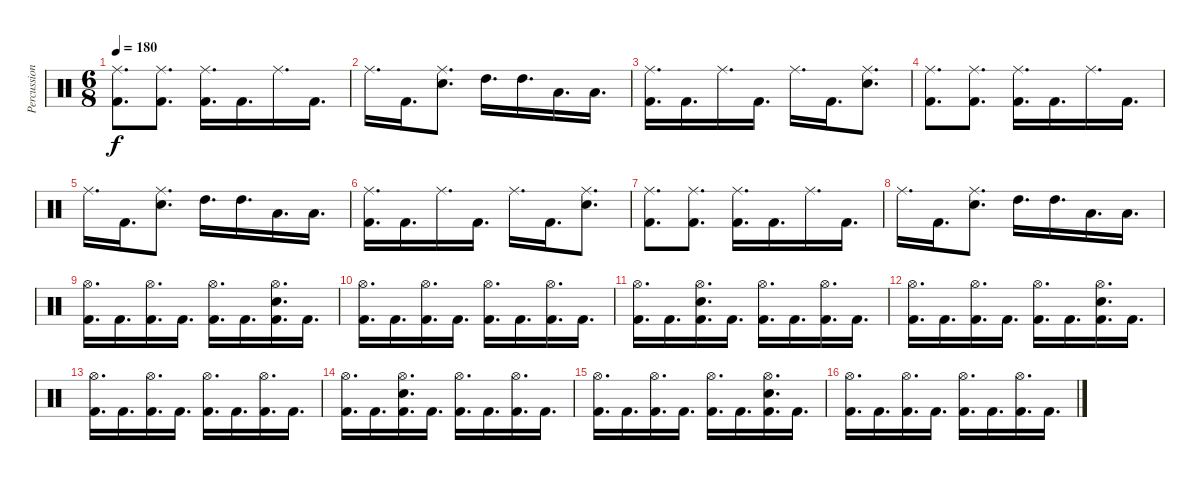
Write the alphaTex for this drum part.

\track ("Percussion" "Percussion") {instrument percussion}
\staff {score}
\articulation defaults
\ts (6 8)
\tempo 180
\clef neutral
\ks c
("Ride (middle)" "Kick (hit) 2").8{d dy f} ("Ride (middle)" "Kick (hit) 2").8{d} ("Ride (middle)" "Kick (hit) 2").16{d} "Kick (hit) 2".16{d} "Ride (middle)".16{d} "Kick (hit) 2".16{d} |
"Ride (middle)".16{d} "Kick (hit) 2".16{d} ("Ride (middle)" "Electric Snare (hit)").8{d} "High Tom (hit)".16{d} "High Tom (hit)".16{d} "Low Tom (hit)".16{d} "Low Tom (hit)".16{d} |
("Ride (middle)" "Kick (hit) 2").16{d} "Kick (hit) 2".16{d} "Ride (middle)".16{d} "Kick (hit) 2".16{d} "Ride (middle)".16{d} "Kick (hit) 2".16{d} ("Ride (middle)" "Electric Snare (hit)").8{d} |
("Ride (middle)" "Kick (hit) 2").8{d} ("Ride (middle)" "Kick (hit) 2").8{d} ("Ride (middle)" "Kick (hit) 2").16{d} "Kick (hit) 2".16{d} "Ride (middle)".16{d} "Kick (hit) 2".16{d} |
"Ride (middle)".16{d} "Kick (hit) 2".16{d} ("Ride (middle)" "Electric Snare (hit)").8{d} "High Tom (hit)".16{d} "High Tom (hit)".16{d} "Low Tom (hit)".16{d} "Low Tom (hit)".16{d} |
("Ride (middle)" "Kick (hit) 2").16{d} "Kick (hit) 2".16{d} "Ride (middle)".16{d} "Kick (hit) 2".16{d} "Ride (middle)".16{d} "Kick (hit) 2".16{d} ("Ride (middle)" "Electric Snare (hit)").8{d} |
("Ride (middle)" "Kick (hit) 2").8{d} ("Ride (middle)" "Kick (hit) 2").8{d} ("Ride (middle)" "Kick (hit) 2").16{d} "Kick (hit) 2".16{d} "Ride (middle)".16{d} "Kick (hit) 2".16{d} |
"Ride (middle)".16{d} "Kick (hit) 2".16{d} ("Ride (middle)" "Electric Snare (hit)").8{d} "High Tom (hit)".16{d} "High Tom (hit)".16{d} "Low Tom (hit)".16{d} "Low Tom (hit)".16{d} |
("Hi-Hat (open)" "Kick (hit) 2").16{d} "Kick (hit) 2".16{d} ("Hi-Hat (open)" "Kick (hit) 2").16{d} "Kick (hit) 2".16{d} ("Hi-Hat (open)" "Kick (hit) 2").16{d} "Kick (hit) 2".16{d} ("Hi-Hat (open)" "Electric Snare (hit)" "Kick (hit) 2").16{d} "Kick (hit) 2".16{d} |
("Hi-Hat (open)" "Kick (hit) 2").16{d} "Kick (hit) 2".16{d} ("Hi-Hat (open)" "Kick (hit) 2").16{d} "Kick (hit) 2".16{d} ("Hi-Hat (open)" "Kick (hit) 2").16{d} "Kick (hit) 2".16{d} ("Hi-Hat (open)" "Kick (hit) 2").16{d} "Kick (hit) 2".16{d} |
("Hi-Hat (open)" "Kick (hit) 2").16{d} "Kick (hit) 2".16{d} ("Hi-Hat (open)" "Electric Snare (hit)" "Kick (hit) 2").16{d} "Kick (hit) 2".16{d} ("Hi-Hat (open)" "Kick (hit) 2").16{d} "Kick (hit) 2".16{d} ("Hi-Hat (open)" "Kick (hit) 2").16{d} "Kick (hit) 2".16{d} |
("Hi-Hat (open)" "Kick (hit) 2").16{d} "Kick (hit) 2".16{d} ("Hi-Hat (open)" "Kick (hit) 2").16{d} "Kick (hit) 2".16{d} ("Hi-Hat (open)" "Kick (hit) 2").16{d} "Kick (hit) 2".16{d} ("Hi-Hat (open)" "Electric Snare (hit)" "Kick (hit) 2").16{d} "Kick (hit) 2".16{d} |
("Hi-Hat (open)" "Kick (hit) 2").16{d} "Kick (hit) 2".16{d} ("Hi-Hat (open)" "Kick (hit) 2").16{d} "Kick (hit) 2".16{d} ("Hi-Hat (open)" "Kick (hit) 2").16{d} "Kick (hit) 2".16{d} ("Hi-Hat (open)" "Kick (hit) 2").16{d} "Kick (hit) 2".16{d} |
("Hi-Hat (open)" "Kick (hit) 2").16{d} "Kick (hit) 2".16{d} ("Hi-Hat (open)" "Electric Snare (hit)" "Kick (hit) 2").16{d} "Kick (hit) 2".16{d} ("Hi-Hat (open)" "Kick (hit) 2").16{d} "Kick (hit) 2".16{d} ("Hi-Hat (open)" "Kick (hit) 2").16{d} "Kick (hit) 2".16{d} |
("Hi-Hat (open)" "Kick (hit) 2").16{d} "Kick (hit) 2".16{d} ("Hi-Hat (open)" "Kick (hit) 2").16{d} "Kick (hit) 2".16{d} ("Hi-Hat (open)" "Kick (hit) 2").16{d} "Kick (hit) 2".16{d} ("Hi-Hat (open)" "Electric Snare (hit)" "Kick (hit) 2").16{d} "Kick (hit) 2".16{d} |
("Hi-Hat (open)" "Kick (hit) 2").16{d} "Kick (hit) 2".16{d} ("Hi-Hat (open)" "Kick (hit) 2").16{d} "Kick (hit) 2".16{d} ("Hi-Hat (open)" "Kick (hit) 2").16{d} "Kick (hit) 2".16{d} ("Hi-Hat (open)" "Kick (hit) 2").16{d} "Kick (hit) 2".16{d}
